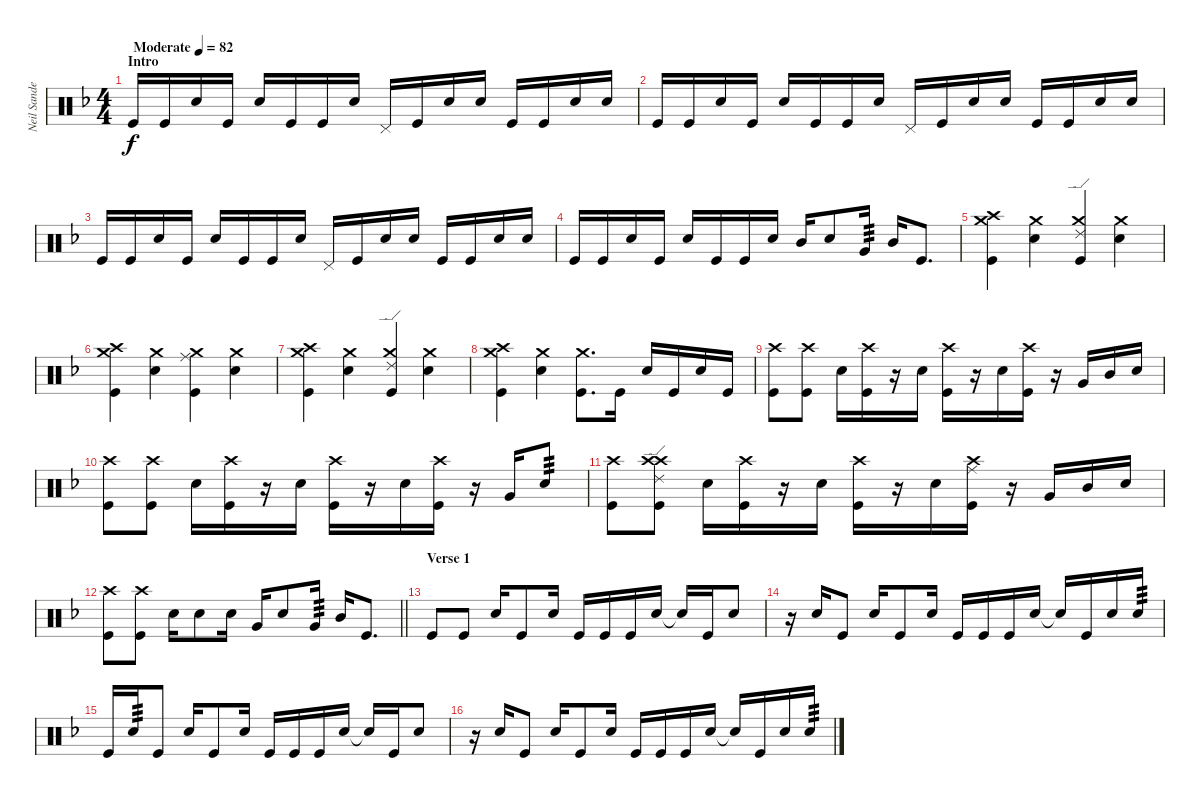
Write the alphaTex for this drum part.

\track ("Neil Sanderson" "Neil Sande") {instrument percussion}
\staff {score}
\articulation defaults
\ts (4 4)
\section ("" "Intro")
\tempo (82 "Moderate")
\clef neutral
\ks f "Kick (hit)".16{dy f} "Kick (hit)".16 "Snare (hit) 2".16 "Kick (hit)".16 "Snare (hit) 2".16 "Kick (hit)".16 "Kick (hit)".16 "Snare (hit) 2".16 "Pedal Hi-Hat (hit)".16 "Kick (hit)".16 "Snare (hit) 2".16 "Snare (hit) 2".16 "Kick (hit)".16 "Kick (hit)".16 "Snare (hit) 2".16 "Snare (hit) 2".16
|
"Kick (hit)".16 "Kick (hit)".16 "Snare (hit) 2".16 "Kick (hit)".16 "Snare (hit) 2".16 "Kick (hit)".16 "Kick (hit)".16 "Snare (hit) 2".16 "Pedal Hi-Hat (hit)".16 "Kick (hit)".16 "Snare (hit) 2".16 "Snare (hit) 2".16 "Kick (hit)".16 "Kick (hit)".16 "Snare (hit) 2".16 "Snare (hit) 2".16 |
"Kick (hit)".16 "Kick (hit)".16 "Snare (hit) 2".16 "Kick (hit)".16 "Snare (hit) 2".16 "Kick (hit)".16 "Kick (hit)".16 "Snare (hit) 2".16 "Pedal Hi-Hat (hit)".16 "Kick (hit)".16 "Snare (hit) 2".16 "Snare (hit) 2".16 "Kick (hit)".16 "Kick (hit)".16 "Snare (hit) 2".16 "Snare (hit) 2".16 |
"Kick (hit)".16 "Kick (hit)".16 "Snare (hit) 2".16 "Kick (hit)".16 "Snare (hit) 2".16 "Kick (hit)".16 "Kick (hit)".16 "Snare (hit) 2".16 "Mid Tom (hit)".16{beam Up} "Snare (hit) 2".8{beam Up} "Very Low Tom (hit)".16{tp 3 beam Up} "Mid Tom (hit)".16{beam Up} "Kick (hit)".8{d beam Up} |
("Crash medium (hit)" "Kick (hit)" "Crash high (hit)").4 ("Crash medium (hit)" "Snare (hit) 2").4 ("Crash medium (hit)" "Kick (hit)" "Ride (edge) 2").4 ("Crash medium (hit)" "Snare (hit) 2").4 |
("Crash medium (hit)" "Kick (hit)" "Crash high (hit)").4 ("Crash medium (hit)" "Snare (hit) 2").4 ("Crash medium (hit)" "Kick (hit)" "Ride (middle)").4 ("Crash medium (hit)" "Snare (hit) 2").4 |
("Crash medium (hit)" "Kick (hit)" "Crash high (hit)").4 ("Crash medium (hit)" "Snare (hit) 2").4 ("Crash medium (hit)" "Kick (hit)" "Ride (edge) 2").4 ("Crash medium (hit)" "Snare (hit) 2").4 |
("Crash medium (hit)" "Kick (hit)" "Crash high (hit)").4 ("Crash medium (hit)" "Snare (hit) 2").4 ("Crash medium (hit)" "Kick (hit)").8{d} "Kick (hit)".16 "Snare (hit) 2".16 "Kick (hit)".16 "Snare (hit) 2".16 "Kick (hit)".16 |
("Crash high (hit)" "Kick (hit)").8 ("Crash high (hit)" "Kick (hit)").8 "Snare (hit) 2".16 ("Crash high (hit)" "Kick (hit)").16 r.16 "Snare (hit) 2".16 ("Crash high (hit)" "Kick (hit)").16 r.16 "Snare (hit) 2".16 ("Crash high (hit)" "Kick (hit)").16 r.16 "Very Low Tom (hit)".16 "Mid Tom (hit)".16 "Snare (hit) 2".16 |
("Crash high (hit)" "Kick (hit)").8 ("Crash high (hit)" "Kick (hit)").8 "Snare (hit) 2".16 ("Crash high (hit)" "Kick (hit)").16 r.16 "Snare (hit) 2".16 ("Crash high (hit)" "Kick (hit)").16 r.16 "Snare (hit) 2".16 ("Crash high (hit)" "Kick (hit)").16 r.16 "Very Low Tom (hit)".16 "Snare (hit) 2".8{tp 3} |
("Crash high (hit)" "Kick (hit)").8 ("Ride (edge) 2" "Kick (hit)" "Crash high (hit)" "Crash high (hit)").8 "Snare (hit) 2".16 ("Crash high (hit)" "Kick (hit)").16 r.16 "Snare (hit) 2".16 ("Crash high (hit)" "Kick (hit)").16 r.16 "Snare (hit) 2".16 ("Ride (middle)" "Kick (hit)" "Crash high (hit)").16 r.16 "Very Low Tom (hit)".16 "Mid Tom (hit)".16 "Snare (hit) 2".16 |
\barLineRight lightlight
("Crash high (hit)" "Kick (hit)").8 ("Crash high (hit)" "Kick (hit)").8 "Snare (hit) 2".16 "Snare (hit) 2".8 "Snare (hit) 2".16 "Very Low Tom (hit)".16 "Snare (hit) 2".8 "Very Low Tom (hit)".16{tp 3 beam Up} "Mid Tom (hit)".16{beam Up} "Kick (hit)".8{d beam Up} |
\section ("" "Verse 1")
"Kick (hit)".8 "Kick (hit)".8 "Snare (hit) 2".16 "Kick (hit)".8 "Snare (hit) 2".16 "Kick (hit)".16 "Kick (hit)".16 "Kick (hit)".16 "Snare (hit) 2".16 "Snare (hit) 2"{t}.16 "Kick (hit)".16 "Snare (hit) 2".8 |
r.16 "Snare (hit) 2".16 "Kick (hit)".8 "Snare (hit) 2".16 "Kick (hit)".8 "Snare (hit) 2".16 "Kick (hit)".16 "Kick (hit)".16 "Kick (hit)".16 "Snare (hit) 2".16 "Snare (hit) 2"{t}.16 "Kick (hit)".16 "Snare (hit) 2".16 "Snare (hit) 2".16{tp 3} |
"Kick (hit)".16 "Snare (hit) 2".16{tp 3} "Kick (hit)".8 "Snare (hit) 2".16 "Kick (hit)".8 "Snare (hit) 2".16 "Kick (hit)".16 "Kick (hit)".16 "Kick (hit)".16 "Snare (hit) 2".16 "Snare (hit) 2"{t}.16 "Kick (hit)".16 "Snare (hit) 2".8 |
r.16 "Snare (hit) 2".16 "Kick (hit)".8 "Snare (hit) 2".16 "Kick (hit)".8 "Snare (hit) 2".16 "Kick (hit)".16 "Kick (hit)".16 "Kick (hit)".16 "Snare (hit) 2".16 "Snare (hit) 2"{t}.16 "Kick (hit)".16 "Snare (hit) 2".16 "Snare (hit) 2".16{tp 3}
